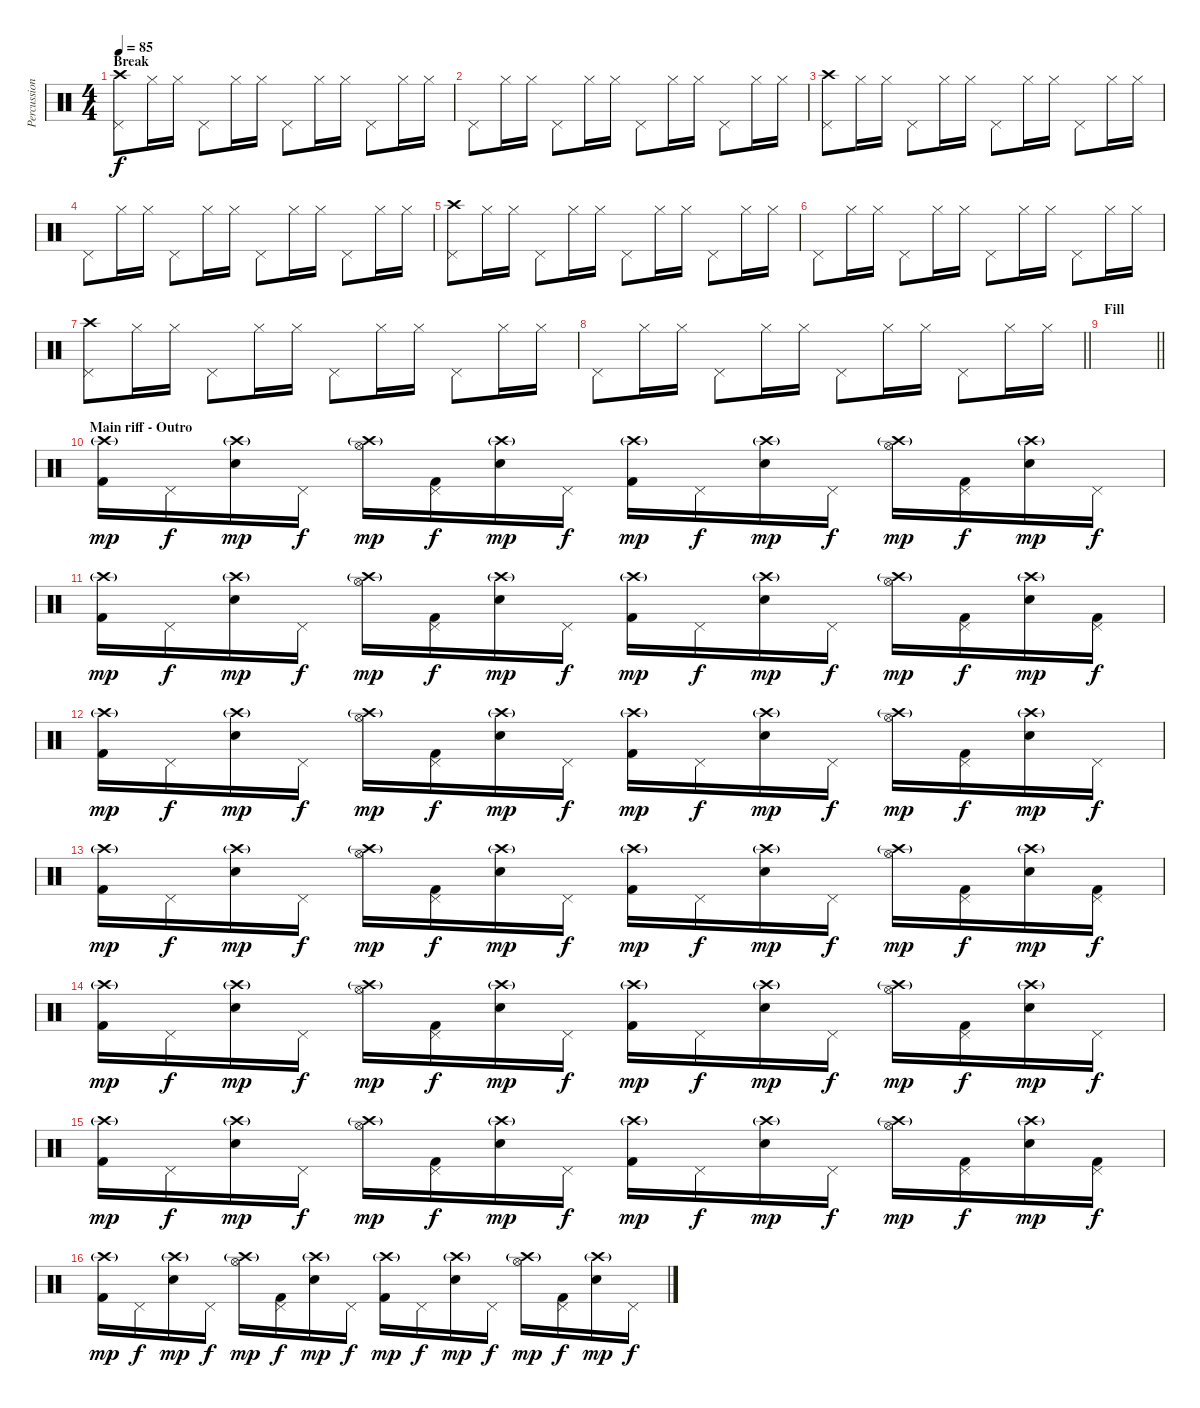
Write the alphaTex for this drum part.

\track ("Percussion" "Percussion") {instrument percussion}
\staff {score}
\articulation defaults
\ts (4 4)
\section ("" "Break")
\tempo 85
\clef neutral
\ks c
("Crash high (hit)" "Pedal Hi-Hat (hit)").8{dy f} "Hi-Hat (closed)".16{volume 8} "Hi-Hat (closed)".16 "Pedal Hi-Hat (hit)".8 "Hi-Hat (closed)".16 "Hi-Hat (closed)".16 "Pedal Hi-Hat (hit)".8 "Hi-Hat (closed)".16 "Hi-Hat (closed)".16 "Pedal Hi-Hat (hit)".8 "Hi-Hat (closed)".16 "Hi-Hat (closed)".16 |
"Pedal Hi-Hat (hit)".8 "Hi-Hat (closed)".16 "Hi-Hat (closed)".16 "Pedal Hi-Hat (hit)".8 "Hi-Hat (closed)".16 "Hi-Hat (closed)".16 "Pedal Hi-Hat (hit)".8 "Hi-Hat (closed)".16 "Hi-Hat (closed)".16 "Pedal Hi-Hat (hit)".8 "Hi-Hat (closed)".16 "Hi-Hat (closed)".16 |
("Crash high (hit)" "Pedal Hi-Hat (hit)").8 "Hi-Hat (closed)".16 "Hi-Hat (closed)".16 "Pedal Hi-Hat (hit)".8 "Hi-Hat (closed)".16 "Hi-Hat (closed)".16 "Pedal Hi-Hat (hit)".8 "Hi-Hat (closed)".16 "Hi-Hat (closed)".16 "Pedal Hi-Hat (hit)".8 "Hi-Hat (closed)".16 "Hi-Hat (closed)".16 |
"Pedal Hi-Hat (hit)".8 "Hi-Hat (closed)".16 "Hi-Hat (closed)".16 "Pedal Hi-Hat (hit)".8 "Hi-Hat (closed)".16 "Hi-Hat (closed)".16 "Pedal Hi-Hat (hit)".8 "Hi-Hat (closed)".16 "Hi-Hat (closed)".16 "Pedal Hi-Hat (hit)".8 "Hi-Hat (closed)".16 "Hi-Hat (closed)".16 |
("Crash high (hit)" "Pedal Hi-Hat (hit)").8 "Hi-Hat (closed)".16 "Hi-Hat (closed)".16 "Pedal Hi-Hat (hit)".8 "Hi-Hat (closed)".16 "Hi-Hat (closed)".16 "Pedal Hi-Hat (hit)".8 "Hi-Hat (closed)".16 "Hi-Hat (closed)".16 "Pedal Hi-Hat (hit)".8 "Hi-Hat (closed)".16 "Hi-Hat (closed)".16 |
"Pedal Hi-Hat (hit)".8 "Hi-Hat (closed)".16 "Hi-Hat (closed)".16 "Pedal Hi-Hat (hit)".8 "Hi-Hat (closed)".16 "Hi-Hat (closed)".16 "Pedal Hi-Hat (hit)".8 "Hi-Hat (closed)".16 "Hi-Hat (closed)".16 "Pedal Hi-Hat (hit)".8 "Hi-Hat (closed)".16 "Hi-Hat (closed)".16 |
("Crash high (hit)" "Pedal Hi-Hat (hit)").8 "Hi-Hat (closed)".16 "Hi-Hat (closed)".16 "Pedal Hi-Hat (hit)".8 "Hi-Hat (closed)".16 "Hi-Hat (closed)".16 "Pedal Hi-Hat (hit)".8 "Hi-Hat (closed)".16 "Hi-Hat (closed)".16 "Pedal Hi-Hat (hit)".8 "Hi-Hat (closed)".16 "Hi-Hat (closed)".16 |
\barLineRight lightlight "Pedal Hi-Hat (hit)".8 "Hi-Hat (closed)".16 "Hi-Hat (closed)".16 "Pedal Hi-Hat (hit)".8 "Hi-Hat (closed)".16 "Hi-Hat (closed)".16 "Pedal Hi-Hat (hit)".8 "Hi-Hat (closed)".16 "Hi-Hat (closed)".16 "Pedal Hi-Hat (hit)".8 "Hi-Hat (closed)".16 "Hi-Hat (closed)".16
|
\section ("" "Fill")
\barLineRight lightlight
|
\section ("" "Main riff - Outro")
("Crash high (hit)"{g} "Kick (hit) 2").16{dy mp volume 13} "Pedal Hi-Hat (hit)".16{dy f} ("Crash high (hit)"{g} "Snare (hit) 2").16{dy mp} "Pedal Hi-Hat (hit)".16{dy f} ("Crash high (hit)"{g} "Hi-Hat (open)").16{dy mp} ("Pedal Hi-Hat (hit)" "Kick (hit) 2").16{dy f} ("Crash high (hit)"{g} "Snare (hit) 2").16{dy mp} "Pedal Hi-Hat (hit)".16{dy f} ("Crash high (hit)"{g} "Kick (hit) 2").16{dy mp} "Pedal Hi-Hat (hit)".16{dy f} ("Crash high (hit)"{g} "Snare (hit) 2").16{dy mp} "Pedal Hi-Hat (hit)".16{dy f} ("Crash high (hit)"{g} "Hi-Hat (open)").16{dy mp} ("Pedal Hi-Hat (hit)" "Kick (hit) 2").16{dy f} ("Crash high (hit)"{g} "Snare (hit) 2").16{dy mp} "Pedal Hi-Hat (hit)".16{dy f} |
("Crash high (hit)"{g} "Kick (hit) 2").16{dy mp} "Pedal Hi-Hat (hit)".16{dy f} ("Crash high (hit)"{g} "Snare (hit) 2").16{dy mp} "Pedal Hi-Hat (hit)".16{dy f} ("Crash high (hit)"{g} "Hi-Hat (open)").16{dy mp} ("Pedal Hi-Hat (hit)" "Kick (hit) 2").16{dy f} ("Crash high (hit)"{g} "Snare (hit) 2").16{dy mp} "Pedal Hi-Hat (hit)".16{dy f} ("Crash high (hit)"{g} "Kick (hit) 2").16{dy mp} "Pedal Hi-Hat (hit)".16{dy f} ("Crash high (hit)"{g} "Snare (hit) 2").16{dy mp} "Pedal Hi-Hat (hit)".16{dy f} ("Crash high (hit)"{g} "Hi-Hat (open)").16{dy mp} ("Pedal Hi-Hat (hit)" "Kick (hit) 2").16{dy f} ("Crash high (hit)"{g} "Snare (hit) 2").16{dy mp} ("Pedal Hi-Hat (hit)" "Kick (hit) 2").16{dy f} |
("Crash high (hit)"{g} "Kick (hit) 2").16{dy mp} "Pedal Hi-Hat (hit)".16{dy f} ("Crash high (hit)"{g} "Snare (hit) 2").16{dy mp} "Pedal Hi-Hat (hit)".16{dy f} ("Crash high (hit)"{g} "Hi-Hat (open)").16{dy mp} ("Pedal Hi-Hat (hit)" "Kick (hit) 2").16{dy f} ("Crash high (hit)"{g} "Snare (hit) 2").16{dy mp} "Pedal Hi-Hat (hit)".16{dy f} ("Crash high (hit)"{g} "Kick (hit) 2").16{dy mp} "Pedal Hi-Hat (hit)".16{dy f} ("Crash high (hit)"{g} "Snare (hit) 2").16{dy mp} "Pedal Hi-Hat (hit)".16{dy f} ("Crash high (hit)"{g} "Hi-Hat (open)").16{dy mp} ("Pedal Hi-Hat (hit)" "Kick (hit) 2").16{dy f} ("Crash high (hit)"{g} "Snare (hit) 2").16{dy mp} "Pedal Hi-Hat (hit)".16{dy f} |
("Crash high (hit)"{g} "Kick (hit) 2").16{dy mp} "Pedal Hi-Hat (hit)".16{dy f} ("Crash high (hit)"{g} "Snare (hit) 2").16{dy mp} "Pedal Hi-Hat (hit)".16{dy f} ("Crash high (hit)"{g} "Hi-Hat (open)").16{dy mp} ("Pedal Hi-Hat (hit)" "Kick (hit) 2").16{dy f} ("Crash high (hit)"{g} "Snare (hit) 2").16{dy mp} "Pedal Hi-Hat (hit)".16{dy f} ("Crash high (hit)"{g} "Kick (hit) 2").16{dy mp} "Pedal Hi-Hat (hit)".16{dy f} ("Crash high (hit)"{g} "Snare (hit) 2").16{dy mp} "Pedal Hi-Hat (hit)".16{dy f} ("Crash high (hit)"{g} "Hi-Hat (open)").16{dy mp} ("Pedal Hi-Hat (hit)" "Kick (hit) 2").16{dy f} ("Crash high (hit)"{g} "Snare (hit) 2").16{dy mp} ("Pedal Hi-Hat (hit)" "Kick (hit) 2").16{dy f} |
("Crash high (hit)"{g} "Kick (hit) 2").16{dy mp} "Pedal Hi-Hat (hit)".16{dy f} ("Crash high (hit)"{g} "Snare (hit) 2").16{dy mp} "Pedal Hi-Hat (hit)".16{dy f} ("Crash high (hit)"{g} "Hi-Hat (open)").16{dy mp} ("Pedal Hi-Hat (hit)" "Kick (hit) 2").16{dy f} ("Crash high (hit)"{g} "Snare (hit) 2").16{dy mp} "Pedal Hi-Hat (hit)".16{dy f} ("Crash high (hit)"{g} "Kick (hit) 2").16{dy mp} "Pedal Hi-Hat (hit)".16{dy f} ("Crash high (hit)"{g} "Snare (hit) 2").16{dy mp} "Pedal Hi-Hat (hit)".16{dy f} ("Crash high (hit)"{g} "Hi-Hat (open)").16{dy mp} ("Pedal Hi-Hat (hit)" "Kick (hit) 2").16{dy f} ("Crash high (hit)"{g} "Snare (hit) 2").16{dy mp} "Pedal Hi-Hat (hit)".16{dy f} |
("Crash high (hit)"{g} "Kick (hit) 2").16{dy mp} "Pedal Hi-Hat (hit)".16{dy f} ("Crash high (hit)"{g} "Snare (hit) 2").16{dy mp} "Pedal Hi-Hat (hit)".16{dy f} ("Crash high (hit)"{g} "Hi-Hat (open)").16{dy mp} ("Pedal Hi-Hat (hit)" "Kick (hit) 2").16{dy f} ("Crash high (hit)"{g} "Snare (hit) 2").16{dy mp} "Pedal Hi-Hat (hit)".16{dy f} ("Crash high (hit)"{g} "Kick (hit) 2").16{dy mp} "Pedal Hi-Hat (hit)".16{dy f} ("Crash high (hit)"{g} "Snare (hit) 2").16{dy mp} "Pedal Hi-Hat (hit)".16{dy f} ("Crash high (hit)"{g} "Hi-Hat (open)").16{dy mp} ("Pedal Hi-Hat (hit)" "Kick (hit) 2").16{dy f} ("Crash high (hit)"{g} "Snare (hit) 2").16{dy mp} ("Pedal Hi-Hat (hit)" "Kick (hit) 2").16{dy f} |
("Crash high (hit)"{g} "Kick (hit) 2").16{dy mp} "Pedal Hi-Hat (hit)".16{dy f} ("Crash high (hit)"{g} "Snare (hit) 2").16{dy mp} "Pedal Hi-Hat (hit)".16{dy f} ("Crash high (hit)"{g} "Hi-Hat (open)").16{dy mp} ("Pedal Hi-Hat (hit)" "Kick (hit) 2").16{dy f} ("Crash high (hit)"{g} "Snare (hit) 2").16{dy mp} "Pedal Hi-Hat (hit)".16{dy f} ("Crash high (hit)"{g} "Kick (hit) 2").16{dy mp} "Pedal Hi-Hat (hit)".16{dy f} ("Crash high (hit)"{g} "Snare (hit) 2").16{dy mp} "Pedal Hi-Hat (hit)".16{dy f} ("Crash high (hit)"{g} "Hi-Hat (open)").16{dy mp} ("Pedal Hi-Hat (hit)" "Kick (hit) 2").16{dy f} ("Crash high (hit)"{g} "Snare (hit) 2").16{dy mp} "Pedal Hi-Hat (hit)".16{dy f}
